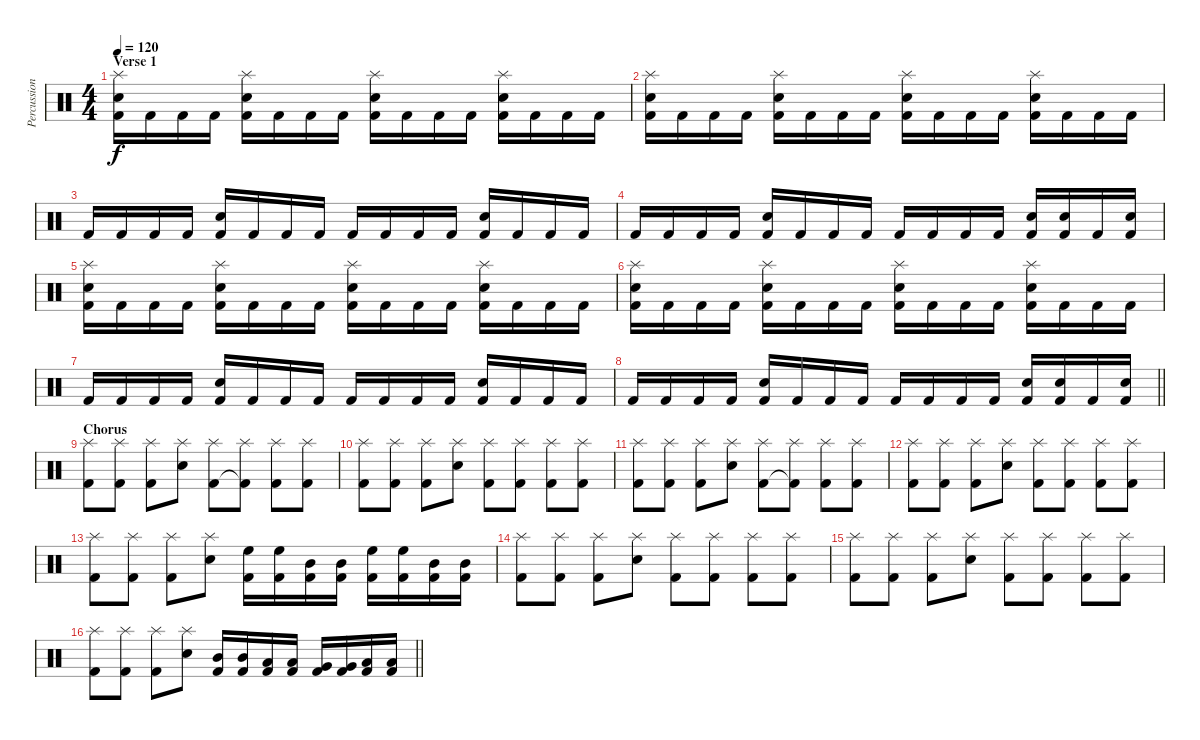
\track ("Percussion" "Percussion") {instrument percussion}
\staff {score}
\articulation defaults
\ts (4 4)
\section ("" "Verse 1")
\tempo 120
\clef neutral
\ks c
("Splash (hit)" "Electric Snare (hit)" "Kick (hit) 2").16{dy f} "Kick (hit) 2".16 "Kick (hit) 2".16 "Kick (hit) 2".16 ("Splash (hit)" "Electric Snare (hit)" "Kick (hit) 2").16 "Kick (hit) 2".16 "Kick (hit) 2".16 "Kick (hit) 2".16 ("Splash (hit)" "Electric Snare (hit)" "Kick (hit) 2").16 "Kick (hit) 2".16 "Kick (hit) 2".16 "Kick (hit) 2".16 ("Splash (hit)" "Electric Snare (hit)" "Kick (hit) 2").16 "Kick (hit) 2".16 "Kick (hit) 2".16 "Kick (hit) 2".16 |
("Splash (hit)" "Electric Snare (hit)" "Kick (hit) 2").16 "Kick (hit) 2".16 "Kick (hit) 2".16 "Kick (hit) 2".16 ("Splash (hit)" "Electric Snare (hit)" "Kick (hit) 2").16 "Kick (hit) 2".16 "Kick (hit) 2".16 "Kick (hit) 2".16 ("Splash (hit)" "Electric Snare (hit)" "Kick (hit) 2").16 "Kick (hit) 2".16 "Kick (hit) 2".16 "Kick (hit) 2".16 ("Splash (hit)" "Electric Snare (hit)" "Kick (hit) 2").16 "Kick (hit) 2".16 "Kick (hit) 2".16 "Kick (hit) 2".16 |
"Kick (hit) 2".16 "Kick (hit) 2".16 "Kick (hit) 2".16 "Kick (hit) 2".16 ("Electric Snare (hit)" "Kick (hit) 2").16 "Kick (hit) 2".16 "Kick (hit) 2".16 "Kick (hit) 2".16 "Kick (hit) 2".16 "Kick (hit) 2".16 "Kick (hit) 2".16 "Kick (hit) 2".16 ("Electric Snare (hit)" "Kick (hit) 2").16 "Kick (hit) 2".16 "Kick (hit) 2".16 "Kick (hit) 2".16 |
"Kick (hit) 2".16 "Kick (hit) 2".16 "Kick (hit) 2".16 "Kick (hit) 2".16 ("Electric Snare (hit)" "Kick (hit) 2").16 "Kick (hit) 2".16 "Kick (hit) 2".16 "Kick (hit) 2".16 "Kick (hit) 2".16 "Kick (hit) 2".16 "Kick (hit) 2".16 "Kick (hit) 2".16 ("Electric Snare (hit)" "Kick (hit) 2").16 ("Electric Snare (hit)" "Kick (hit) 2").16 "Kick (hit) 2".16 ("Electric Snare (hit)" "Kick (hit) 2").16 |
("Splash (hit)" "Electric Snare (hit)" "Kick (hit) 2").16 "Kick (hit) 2".16 "Kick (hit) 2".16 "Kick (hit) 2".16 ("Splash (hit)" "Electric Snare (hit)" "Kick (hit) 2").16 "Kick (hit) 2".16 "Kick (hit) 2".16 "Kick (hit) 2".16 ("Splash (hit)" "Electric Snare (hit)" "Kick (hit) 2").16 "Kick (hit) 2".16 "Kick (hit) 2".16 "Kick (hit) 2".16 ("Splash (hit)" "Electric Snare (hit)" "Kick (hit) 2").16 "Kick (hit) 2".16 "Kick (hit) 2".16 "Kick (hit) 2".16 |
("Splash (hit)" "Electric Snare (hit)" "Kick (hit) 2").16 "Kick (hit) 2".16 "Kick (hit) 2".16 "Kick (hit) 2".16 ("Splash (hit)" "Electric Snare (hit)" "Kick (hit) 2").16 "Kick (hit) 2".16 "Kick (hit) 2".16 "Kick (hit) 2".16 ("Splash (hit)" "Electric Snare (hit)" "Kick (hit) 2").16 "Kick (hit) 2".16 "Kick (hit) 2".16 "Kick (hit) 2".16 ("Splash (hit)" "Electric Snare (hit)" "Kick (hit) 2").16 "Kick (hit) 2".16 "Kick (hit) 2".16 "Kick (hit) 2".16 |
"Kick (hit) 2".16 "Kick (hit) 2".16 "Kick (hit) 2".16 "Kick (hit) 2".16 ("Electric Snare (hit)" "Kick (hit) 2").16 "Kick (hit) 2".16 "Kick (hit) 2".16 "Kick (hit) 2".16 "Kick (hit) 2".16 "Kick (hit) 2".16 "Kick (hit) 2".16 "Kick (hit) 2".16 ("Electric Snare (hit)" "Kick (hit) 2").16 "Kick (hit) 2".16 "Kick (hit) 2".16 "Kick (hit) 2".16 |
\barLineRight lightlight "Kick (hit) 2".16 "Kick (hit) 2".16 "Kick (hit) 2".16 "Kick (hit) 2".16
("Electric Snare (hit)" "Kick (hit) 2").16 "Kick (hit) 2".16 "Kick (hit) 2".16 "Kick (hit) 2".16 "Kick (hit) 2".16 "Kick (hit) 2".16 "Kick (hit) 2".16 "Kick (hit) 2".16 ("Electric Snare (hit)" "Kick (hit) 2").16 ("Electric Snare (hit)" "Kick (hit) 2").16 "Kick (hit) 2".16 ("Electric Snare (hit)" "Kick (hit) 2").16 |
\section ("" "Chorus")
("Splash (hit)" "Kick (hit) 2").8 ("Splash (hit)" "Kick (hit) 2").8 ("Splash (hit)" "Kick (hit) 2").8 ("Splash (hit)" "Electric Snare (hit)").8 ("Splash (hit)" "Kick (hit) 2").8 ("Splash (hit)" "Kick (hit) 2"{t}).8 ("Splash (hit)" "Kick (hit) 2").8 ("Splash (hit)" "Kick (hit) 2").8 |
("Splash (hit)" "Kick (hit) 2").8 ("Splash (hit)" "Kick (hit) 2").8 ("Splash (hit)" "Kick (hit) 2").8 ("Splash (hit)" "Electric Snare (hit)").8 ("Splash (hit)" "Kick (hit) 2").8 ("Splash (hit)" "Kick (hit) 2").8 ("Splash (hit)" "Kick (hit) 2").8 ("Splash (hit)" "Kick (hit) 2").8 |
("Splash (hit)" "Kick (hit) 2").8 ("Splash (hit)" "Kick (hit) 2").8 ("Splash (hit)" "Kick (hit) 2").8 ("Splash (hit)" "Electric Snare (hit)").8 ("Splash (hit)" "Kick (hit) 2").8 ("Splash (hit)" "Kick (hit) 2"{t}).8 ("Splash (hit)" "Kick (hit) 2").8 ("Splash (hit)" "Kick (hit) 2").8 |
("Splash (hit)" "Kick (hit) 2").8 ("Splash (hit)" "Kick (hit) 2").8 ("Splash (hit)" "Kick (hit) 2").8 ("Splash (hit)" "Electric Snare (hit)").8 ("Splash (hit)" "Kick (hit) 2").8 ("Splash (hit)" "Kick (hit) 2").8 ("Splash (hit)" "Kick (hit) 2").8 ("Splash (hit)" "Kick (hit) 2").8 |
("Splash (hit)" "Kick (hit) 2").8 ("Splash (hit)" "Kick (hit) 2").8 ("Splash (hit)" "Kick (hit) 2").8 ("Splash (hit)" "Electric Snare (hit)").8 ("High Floor Tom (hit)" "Kick (hit) 2").16 ("High Floor Tom (hit)" "Kick (hit) 2").16 ("Mid Tom (hit)" "Kick (hit) 2").16 ("Mid Tom (hit)" "Kick (hit) 2").16 ("High Floor Tom (hit)" "Kick (hit) 2").16 ("High Floor Tom (hit)" "Kick (hit) 2").16 ("Mid Tom (hit)" "Kick (hit) 2").16 ("Mid Tom (hit)" "Kick (hit) 2").16 |
("Splash (hit)" "Kick (hit) 2").8 ("Splash (hit)" "Kick (hit) 2").8 ("Splash (hit)" "Kick (hit) 2").8 ("Splash (hit)" "Electric Snare (hit)").8 ("Splash (hit)" "Kick (hit) 2").8 ("Splash (hit)" "Kick (hit) 2").8 ("Splash (hit)" "Kick (hit) 2").8 ("Splash (hit)" "Kick (hit) 2").8 |
("Splash (hit)" "Kick (hit) 2").8 ("Splash (hit)" "Kick (hit) 2").8 ("Splash (hit)" "Kick (hit) 2").8 ("Splash (hit)" "Electric Snare (hit)").8 ("Splash (hit)" "Kick (hit) 2").8 ("Splash (hit)" "Kick (hit) 2").8 ("Splash (hit)" "Kick (hit) 2").8 ("Splash (hit)" "Kick (hit) 2").8 |
\barLineRight lightlight
("Splash (hit)" "Kick (hit) 2").8 ("Splash (hit)" "Kick (hit) 2").8 ("Splash (hit)" "Kick (hit) 2").8 ("Splash (hit)" "Electric Snare (hit)").8 ("Mid Tom (hit)" "Kick (hit) 2").16 ("Mid Tom (hit)" "Kick (hit) 2").16 ("Low Tom (hit)" "Kick (hit) 2").16 ("Low Tom (hit)" "Kick (hit) 2").16 ("Very Low Tom (hit)" "Kick (hit) 2").16 ("Very Low Tom (hit)" "Kick (hit) 2").16 ("Low Floor Tom (hit)" "Kick (hit) 2").16 ("Low Floor Tom (hit)" "Kick (hit) 2").16
